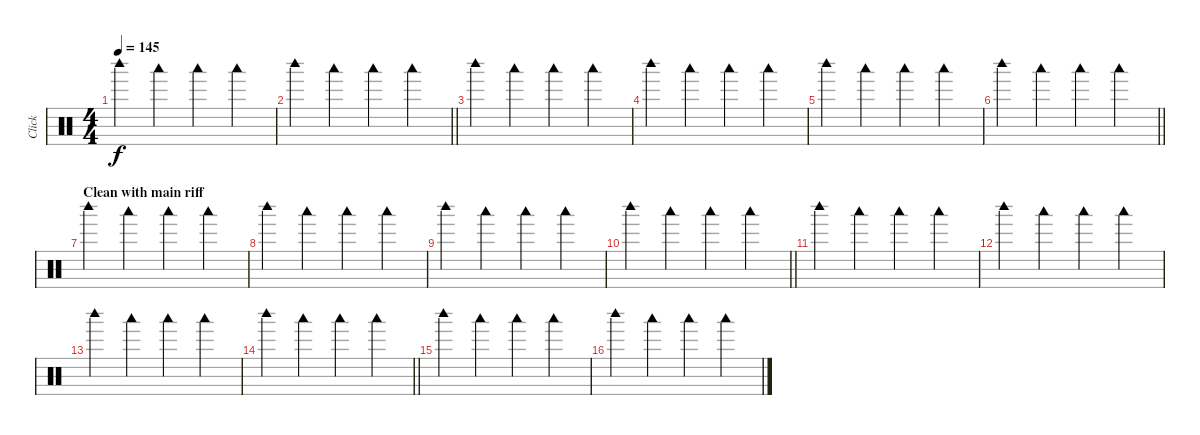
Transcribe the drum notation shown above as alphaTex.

\track ("Click" "Click") {mute instrument percussion}
\staff {score}
\articulation defaults
\ts (4 4)
\tempo 145
\clef neutral
\ks c "Woodblock high (hit)".4{dy f} "Woodblock low (hit)".4 "Woodblock low (hit)".4 "Woodblock low (hit)".4
|
\barLineRight lightlight "Woodblock high (hit)".4 "Woodblock low (hit)".4 "Woodblock low (hit)".4 "Woodblock low (hit)".4
|
"Woodblock high (hit)".4 "Woodblock low (hit)".4 "Woodblock low (hit)".4 "Woodblock low (hit)".4 |
"Woodblock high (hit)".4 "Woodblock low (hit)".4 "Woodblock low (hit)".4 "Woodblock low (hit)".4 |
"Woodblock high (hit)".4 "Woodblock low (hit)".4 "Woodblock low (hit)".4 "Woodblock low (hit)".4 |
\barLineRight lightlight "Woodblock high (hit)".4 "Woodblock low (hit)".4 "Woodblock low (hit)".4 "Woodblock low (hit)".4
|
\section ("" "Clean with main riff")
"Woodblock high (hit)".4 "Woodblock low (hit)".4 "Woodblock low (hit)".4 "Woodblock low (hit)".4 |
"Woodblock high (hit)".4 "Woodblock low (hit)".4 "Woodblock low (hit)".4 "Woodblock low (hit)".4 |
"Woodblock high (hit)".4 "Woodblock low (hit)".4 "Woodblock low (hit)".4 "Woodblock low (hit)".4 |
\barLineRight lightlight "Woodblock high (hit)".4 "Woodblock low (hit)".4 "Woodblock low (hit)".4 "Woodblock low (hit)".4
|
"Woodblock high (hit)".4 "Woodblock low (hit)".4 "Woodblock low (hit)".4 "Woodblock low (hit)".4 |
"Woodblock high (hit)".4 "Woodblock low (hit)".4 "Woodblock low (hit)".4 "Woodblock low (hit)".4 |
"Woodblock high (hit)".4 "Woodblock low (hit)".4 "Woodblock low (hit)".4 "Woodblock low (hit)".4 |
\barLineRight lightlight "Woodblock high (hit)".4 "Woodblock low (hit)".4 "Woodblock low (hit)".4 "Woodblock low (hit)".4
|
"Woodblock high (hit)".4 "Woodblock low (hit)".4 "Woodblock low (hit)".4 "Woodblock low (hit)".4 |
"Woodblock high (hit)".4 "Woodblock low (hit)".4 "Woodblock low (hit)".4 "Woodblock low (hit)".4
